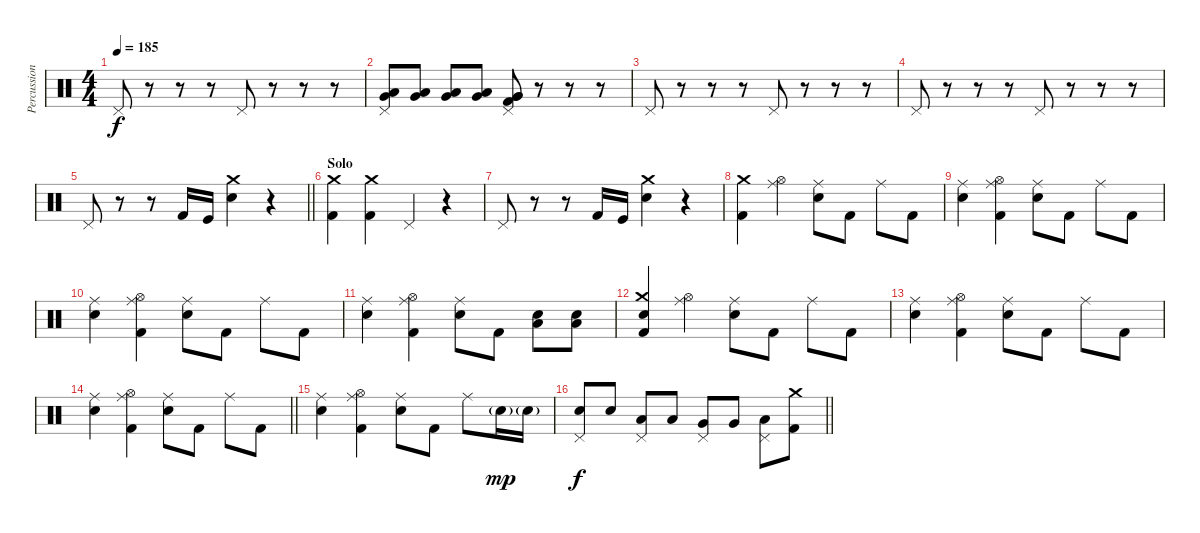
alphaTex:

\track ("Percussion" "Percussion") {instrument percussion}
\staff {score}
\articulation defaults
\ts (4 4)
\tempo 185
\clef neutral
\ks c "Pedal Hi-Hat (hit)".8{dy f}
r.8 r.8 r.8 "Pedal Hi-Hat (hit)".8 r.8 r.8 r.8 |
("Pedal Hi-Hat (hit)" "Low Floor Tom (hit)" "Very Low Tom (hit)").8 ("Low Floor Tom (hit)" "Very Low Tom (hit)").8 ("Low Floor Tom (hit)" "Very Low Tom (hit)").8 ("Low Floor Tom (hit)" "Very Low Tom (hit)").8 ("Pedal Hi-Hat (hit)" "Very Low Tom (hit)" "Very Low Tom (hit)" "Kick (hit) 2").8 r.8 r.8 r.8 |
"Pedal Hi-Hat (hit)".8 r.8 r.8 r.8 "Pedal Hi-Hat (hit)".8 r.8 r.8 r.8 |
"Pedal Hi-Hat (hit)".8 r.8 r.8 r.8 "Pedal Hi-Hat (hit)".8 r.8 r.8 r.8 |
\barLineRight lightlight "Pedal Hi-Hat (hit)".8
r.8 r.8 "Kick (hit) 2".16 "Kick (hit)".16 ("Crash medium (hit)" "Electric Snare (hit)").4 r.4 |
\section ("" "Solo")
("Crash medium (hit)" "Kick (hit) 2").4 ("Crash medium (hit)" "Kick (hit) 2").4 "Pedal Hi-Hat (hit)".4 r.4 |
"Pedal Hi-Hat (hit)".8 r.8 r.8 "Kick (hit) 2".16 "Kick (hit)".16 ("Crash medium (hit)" "Electric Snare (hit)").4 r.4 |
("Crash medium (hit)" "Kick (hit) 2").4 ("Hi-Hat (open)" "Ride (middle)").4 ("Ride (middle)" "Electric Snare (hit)").8 "Kick (hit) 2".8 "Ride (middle)".8 "Kick (hit) 2".8 |
("Ride (middle)" "Electric Snare (hit)").4 ("Hi-Hat (open)" "Ride (middle)" "Kick (hit) 2").4 ("Ride (middle)" "Electric Snare (hit)").8 "Kick (hit) 2".8 "Ride (middle)".8 "Kick (hit) 2".8 |
("Ride (middle)" "Electric Snare (hit)").4 ("Hi-Hat (open)" "Ride (middle)" "Kick (hit) 2").4 ("Ride (middle)" "Electric Snare (hit)").8 "Kick (hit) 2".8 "Ride (middle)".8 "Kick (hit) 2".8 |
("Ride (middle)" "Electric Snare (hit)").4 ("Hi-Hat (open)" "Ride (middle)" "Kick (hit) 2").4 ("Ride (middle)" "Electric Snare (hit)").8 "Kick (hit) 2".8 ("Low Floor Tom (hit)" "Electric Snare (hit)").8 ("Low Floor Tom (hit)" "Electric Snare (hit)").8 |
("Crash medium (hit)" "Electric Snare (hit)" "Kick (hit) 2").4 ("Hi-Hat (open)" "Ride (middle)").4 ("Ride (middle)" "Electric Snare (hit)").8 "Kick (hit) 2".8 "Ride (middle)".8 "Kick (hit) 2".8 |
("Ride (middle)" "Electric Snare (hit)").4 ("Hi-Hat (open)" "Ride (middle)" "Kick (hit) 2").4 ("Ride (middle)" "Electric Snare (hit)").8 "Kick (hit) 2".8 "Ride (middle)".8 "Kick (hit) 2".8 |
\barLineRight lightlight
("Ride (middle)" "Electric Snare (hit)").4 ("Hi-Hat (open)" "Ride (middle)" "Kick (hit) 2").4 ("Ride (middle)" "Electric Snare (hit)").8 "Kick (hit) 2".8 "Ride (middle)".8 "Kick (hit) 2".8 |
("Ride (middle)" "Electric Snare (hit)").4 ("Hi-Hat (open)" "Ride (middle)" "Kick (hit) 2").4 ("Ride (middle)" "Electric Snare (hit)").8 "Kick (hit) 2".8 "Ride (middle)".8 "Electric Snare (hit)"{g}.16{dy mp} "Electric Snare (hit)"{g}.16 |
\barLineRight lightlight
("Pedal Hi-Hat (hit)" "Electric Snare (hit)").8{dy f} "Electric Snare (hit)".8 ("Pedal Hi-Hat (hit)" "Low Tom (hit)").8 "Low Tom (hit)".8 ("Pedal Hi-Hat (hit)" "Very Low Tom (hit)").8 "Very Low Tom (hit)".8 ("Pedal Hi-Hat (hit)" "Low Floor Tom (hit)").8 ("Crash medium (hit)" "Kick (hit) 2").8
